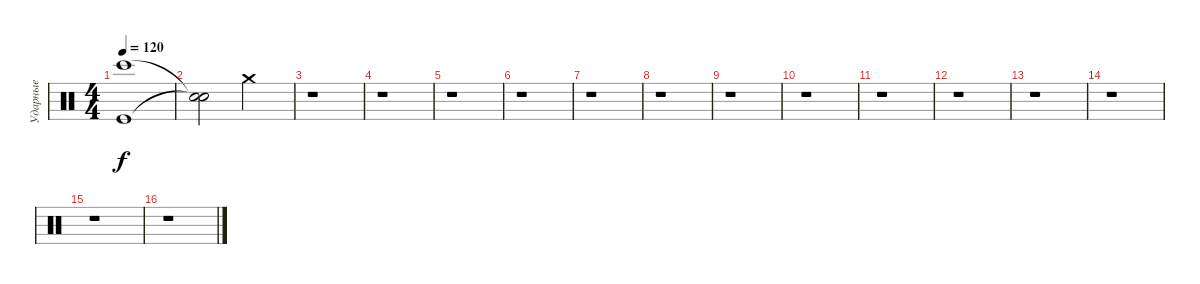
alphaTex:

\track ("Ударные" "Ударные") {instrument percussion}
\staff {score}
\articulation defaults
\ts (4 4)
\tempo 120
\clef neutral
\ks c
("Bongo High (hit)" "Kick (hit)").1{dy f} |
("Snare (hit)"{t} "Snare (hit)"{t}).2 "Crash medium (hit)".2 |
r.1 |
r.1 |
r.1 |
r.1 |
r.1 |
r.1 |
r.1 |
r.1 |
r.1 |
r.1 |
r.1 |
r.1 |
r.1 |
r.1
